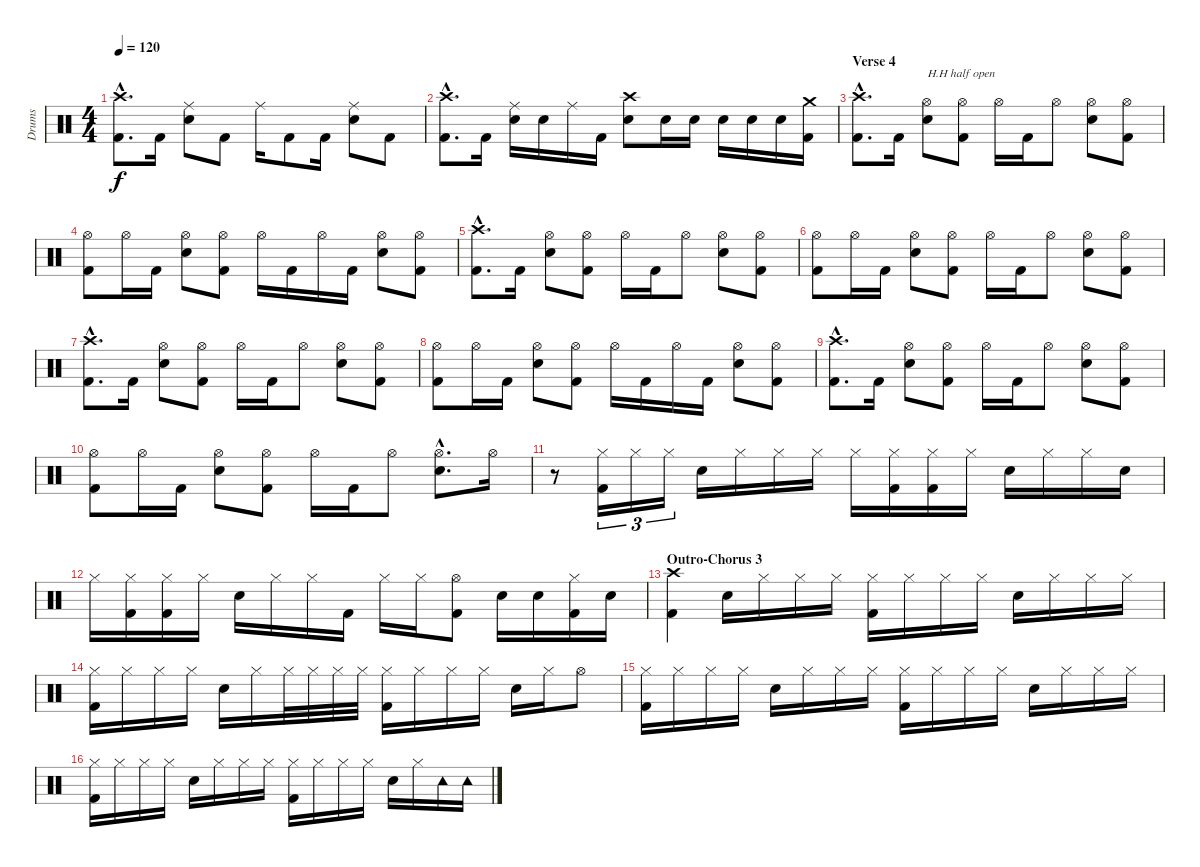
\track ("Drums" "Drums") {instrument percussion}
\staff {score}
\articulation defaults
\ts (4 4)
\tempo 120
\clef neutral
\ks c
("Crash high (hit)"{hac} "Kick (hit) 2"{hac}).8{d dy f} "Kick (hit) 2".16 ("Ride (middle)" "Electric Snare (hit)").8 "Kick (hit) 2".8 "Ride (middle)".16 "Kick (hit) 2".8 "Kick (hit) 2".16 ("Ride (middle)" "Electric Snare (hit)").8 "Kick (hit) 2".8 |
("Crash high (hit)"{hac} "Kick (hit) 2"{hac}).8{d} "Kick (hit) 2".16 ("Ride (middle)" "Electric Snare (hit)").16 "Electric Snare (hit)".16 "Ride (middle)".16 "Kick (hit) 2".16 ("Crash high (hit)" "Electric Snare (hit)").8 "Electric Snare (hit)".16 "Electric Snare (hit)".16 "Electric Snare (hit)".16 "Electric Snare (hit)".16 "Electric Snare (hit)".16 ("Crash medium (hit)" "Kick (hit) 2").16 |
\section ("" "Verse 4")
("Crash high (hit)"{hac} "Kick (hit) 2"{hac}).8{d} "Kick (hit) 2".16 ("Hi-Hat (open)" "Electric Snare (hit)").8{txt "H.H half open"} ("Hi-Hat (open)" "Kick (hit) 2").8 "Hi-Hat (open)".16 "Kick (hit) 2".16 "Hi-Hat (open)".8 ("Hi-Hat (open)" "Electric Snare (hit)").8 ("Hi-Hat (open)" "Kick (hit) 2").8 |
("Hi-Hat (open)" "Kick (hit) 2").8 "Hi-Hat (open)".16 "Kick (hit) 2".16 ("Hi-Hat (open)" "Electric Snare (hit)").8 ("Hi-Hat (open)" "Kick (hit) 2").8 "Hi-Hat (open)".16 "Kick (hit) 2".16 "Hi-Hat (open)".16 "Kick (hit) 2".16 ("Hi-Hat (open)" "Electric Snare (hit)").8 ("Hi-Hat (open)" "Kick (hit) 2").8 |
("Crash high (hit)"{hac} "Kick (hit) 2"{hac}).8{d} "Kick (hit) 2".16 ("Hi-Hat (open)" "Electric Snare (hit)").8 ("Hi-Hat (open)" "Kick (hit) 2").8 "Hi-Hat (open)".16 "Kick (hit) 2".16 "Hi-Hat (open)".8 ("Hi-Hat (open)" "Electric Snare (hit)").8 ("Hi-Hat (open)" "Kick (hit) 2").8 |
("Hi-Hat (open)" "Kick (hit) 2").8 "Hi-Hat (open)".16 "Kick (hit) 2".16 ("Hi-Hat (open)" "Electric Snare (hit)").8 ("Hi-Hat (open)" "Kick (hit) 2").8 "Hi-Hat (open)".16 "Kick (hit) 2".16 "Hi-Hat (open)".8 ("Hi-Hat (open)" "Electric Snare (hit)").8 ("Hi-Hat (open)" "Kick (hit) 2").8 |
("Crash high (hit)"{hac} "Kick (hit) 2"{hac}).8{d} "Kick (hit) 2".16 ("Hi-Hat (open)" "Electric Snare (hit)").8 ("Hi-Hat (open)" "Kick (hit) 2").8 "Hi-Hat (open)".16 "Kick (hit) 2".16 "Hi-Hat (open)".8 ("Hi-Hat (open)" "Electric Snare (hit)").8 ("Hi-Hat (open)" "Kick (hit) 2").8 |
("Hi-Hat (open)" "Kick (hit) 2").8 "Hi-Hat (open)".16 "Kick (hit) 2".16 ("Hi-Hat (open)" "Electric Snare (hit)").8 ("Hi-Hat (open)" "Kick (hit) 2").8 "Hi-Hat (open)".16 "Kick (hit) 2".16 "Hi-Hat (open)".16 "Kick (hit) 2".16 ("Hi-Hat (open)" "Electric Snare (hit)").8 ("Hi-Hat (open)" "Kick (hit) 2").8 |
("Crash high (hit)"{hac} "Kick (hit) 2"{hac}).8{d} "Kick (hit) 2".16 ("Hi-Hat (open)" "Electric Snare (hit)").8 ("Hi-Hat (open)" "Kick (hit) 2").8 "Hi-Hat (open)".16 "Kick (hit) 2".16 "Hi-Hat (open)".8 ("Hi-Hat (open)" "Electric Snare (hit)").8 ("Hi-Hat (open)" "Kick (hit) 2").8 |
("Hi-Hat (open)" "Kick (hit) 2").8 "Hi-Hat (open)".16 "Kick (hit) 2".16 ("Hi-Hat (open)" "Electric Snare (hit)").8 ("Hi-Hat (open)" "Kick (hit) 2").8 "Hi-Hat (open)".16 "Kick (hit) 2".16 "Hi-Hat (open)".8 ("Hi-Hat (open)"{hac} "Electric Snare (hit)"{hac}).8{d} "Hi-Hat (open)".16 |
r.8 ("Hi-Hat (closed)" "Kick (hit) 2").16{tu (3 2)} "Hi-Hat (closed)".16{tu (3 2)} "Hi-Hat (closed)".16{tu (3 2)} "Electric Snare (hit)".16 "Hi-Hat (closed)".16 "Hi-Hat (closed)".16 "Hi-Hat (closed)".16 "Hi-Hat (closed)".16 ("Hi-Hat (closed)" "Kick (hit) 2").16 ("Hi-Hat (closed)" "Kick (hit) 2").16 "Hi-Hat (closed)".16 "Electric Snare (hit)".16 "Hi-Hat (closed)".16 "Hi-Hat (closed)".16 "Electric Snare (hit)".16 |
"Hi-Hat (closed)".16 ("Hi-Hat (closed)" "Kick (hit) 2").16 ("Hi-Hat (closed)" "Kick (hit) 2").16 "Hi-Hat (closed)".16 "Electric Snare (hit)".16 "Hi-Hat (closed)".16 "Hi-Hat (closed)".16 "Kick (hit) 2".16 "Hi-Hat (closed)".16 "Hi-Hat (closed)".16 ("Hi-Hat (open)" "Kick (hit) 2").8 "Electric Snare (hit)".16 "Electric Snare (hit)".16 ("Hi-Hat (closed)" "Kick (hit) 2").16 "Electric Snare (hit)".16 |
\section ("" "Outro-Chorus 3")
("Crash high (hit)" "Kick (hit) 2").4 "Electric Snare (hit)".16 "Hi-Hat (closed)".16 "Hi-Hat (closed)".16 "Hi-Hat (closed)".16 ("Hi-Hat (closed)" "Kick (hit) 2").16 "Hi-Hat (closed)".16 "Hi-Hat (closed)".16 "Hi-Hat (closed)".16 "Electric Snare (hit)".16 "Hi-Hat (closed)".16 "Hi-Hat (closed)".16 "Hi-Hat (closed)".16 |
("Hi-Hat (closed)" "Kick (hit) 2").16 "Hi-Hat (closed)".16 "Hi-Hat (closed)".16 "Hi-Hat (closed)".16 "Electric Snare (hit)".16 "Hi-Hat (closed)".16 "Hi-Hat (closed)".32 "Hi-Hat (closed)".32 "Hi-Hat (closed)".32 "Hi-Hat (closed)".32 ("Hi-Hat (closed)" "Kick (hit) 2").16 "Hi-Hat (closed)".16 "Hi-Hat (closed)".16 "Hi-Hat (closed)".16 "Electric Snare (hit)".16 "Hi-Hat (closed)".16 "Hi-Hat (open)".8 |
("Hi-Hat (closed)" "Kick (hit) 2").16 "Hi-Hat (closed)".16 "Hi-Hat (closed)".16 "Hi-Hat (closed)".16 "Electric Snare (hit)".16 "Hi-Hat (closed)".16 "Hi-Hat (closed)".16 "Hi-Hat (closed)".16 ("Hi-Hat (closed)" "Kick (hit) 2").16 "Hi-Hat (closed)".16 "Hi-Hat (closed)".16 "Hi-Hat (closed)".16 "Electric Snare (hit)".16 "Hi-Hat (closed)".16 "Hi-Hat (closed)".16 "Hi-Hat (closed)".16 |
("Hi-Hat (closed)" "Kick (hit) 2").16 "Hi-Hat (closed)".16 "Hi-Hat (closed)".16 "Hi-Hat (closed)".16 "Electric Snare (hit)".16 "Hi-Hat (closed)".16 "Hi-Hat (closed)".16 "Hi-Hat (closed)".16 ("Hi-Hat (closed)" "Kick (hit) 2").16 "Hi-Hat (closed)".16 "Hi-Hat (closed)".16 "Hi-Hat (closed)".16 "Electric Snare (hit)".16 "Hi-Hat (closed)".16 "Tambourine (hit)".16 "Tambourine (hit)".16
